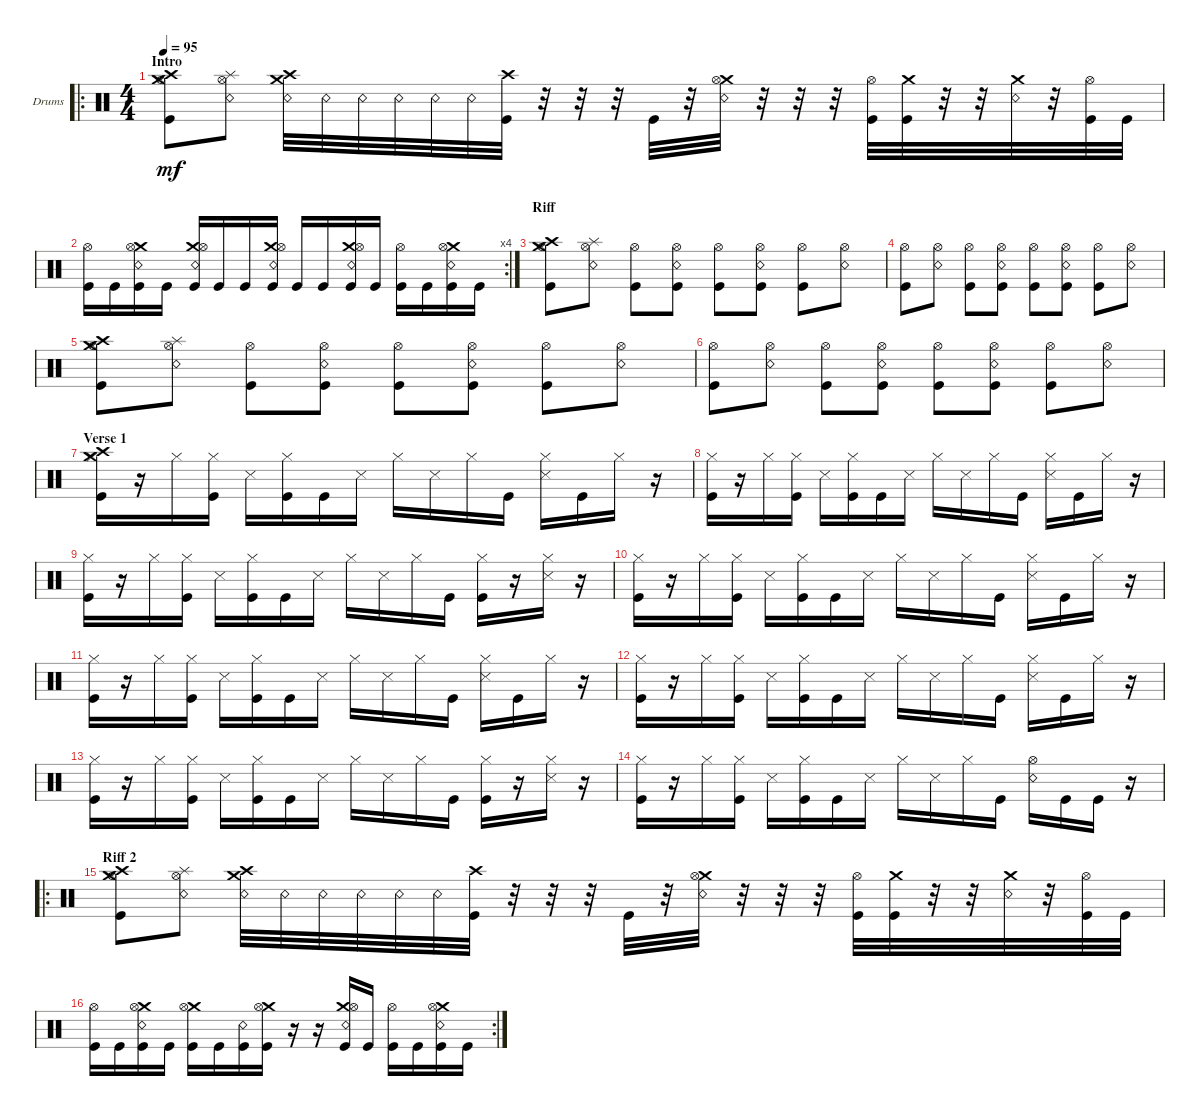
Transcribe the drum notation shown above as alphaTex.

\bracketExtendMode groupsimilarinstruments
\firstSystemTrackNameOrientation horizontal
\otherSystemsTrackNameOrientation horizontal
\track ("Drumkit" "Drums") {instrument percussion}
\staff {score}
\articulation defaults
\ro
\ts (4 4)
\section ("" "Intro")
\tempo 95
\clef neutral
\ks c
("Kick (hit)" "Hi-Hat (open)" "Crash medium (hit)" "Crash high (hit)").8{dy mf} ("Hi-Hat (open)" "Snare (rim shot)" "Splash (hit)").8 ("Crash medium (hit)" "Crash high (hit)" "Snare (rim shot)").32 "Snare (rim shot)".32 "Snare (rim shot)".32 "Snare (rim shot)".32 "Snare (rim shot)".32 "Snare (rim shot)".32 ("Kick (hit)" "Crash high (hit)").32 r.32 r.32 r.32 "Kick (hit)".32 r.32 ("Snare (rim shot)" "Crash medium (hit)" "Hi-Hat (open)").32 r.32 r.32 r.32 ("Kick (hit)" "Hi-Hat (open)").32 ("Kick (hit)" "Crash medium (hit)").32 r.32 r.32 ("Snare (rim shot)" "Crash medium (hit)").32 r.32 ("Kick (hit)" "Hi-Hat (open)").32 "Kick (hit)".32 |
\rc 4
("Kick (hit)" "Hi-Hat (open)").16 "Kick (hit)".16 ("Kick (hit)" "Snare (rim shot)" "Crash medium (hit)" "Hi-Hat (open)").16 "Kick (hit)".16 ("Kick (hit)" "Snare (rim shot)" "Crash medium (hit)" "Hi-Hat (open)").16 "Kick (hit)".16 "Kick (hit)".16 ("Kick (hit)" "Snare (rim shot)" "Crash medium (hit)" "Hi-Hat (open)").16 "Kick (hit)".16 "Kick (hit)".16 ("Kick (hit)" "Snare (rim shot)" "Crash medium (hit)" "Hi-Hat (open)").16 "Kick (hit)".16 ("Kick (hit)" "Hi-Hat (open)").16 "Kick (hit)".16 ("Kick (hit)" "Snare (rim shot)" "Crash medium (hit)" "Hi-Hat (open)").16 "Kick (hit)".16 |
\section ("" "Riff")
("Kick (hit)" "Hi-Hat (open)" "Crash medium (hit)" "Crash high (hit)").8 ("Snare (rim shot)" "Hi-Hat (open)" "Splash (hit)").8 ("Kick (hit)" "Hi-Hat (open)").8 ("Kick (hit)" "Snare (rim shot)" "Hi-Hat (open)").8 ("Kick (hit)" "Hi-Hat (open)").8 ("Kick (hit)" "Snare (rim shot)" "Hi-Hat (open)").8 ("Kick (hit)" "Hi-Hat (open)").8 ("Snare (rim shot)" "Hi-Hat (open)").8 |
("Kick (hit)" "Hi-Hat (open)").8 ("Snare (rim shot)" "Hi-Hat (open)").8 ("Kick (hit)" "Hi-Hat (open)").8 ("Kick (hit)" "Snare (rim shot)" "Hi-Hat (open)").8 ("Kick (hit)" "Hi-Hat (open)").8 ("Kick (hit)" "Snare (rim shot)" "Hi-Hat (open)").8 ("Kick (hit)" "Hi-Hat (open)").8 ("Snare (rim shot)" "Hi-Hat (open)").8 |
("Kick (hit)" "Hi-Hat (open)" "Crash medium (hit)" "Crash high (hit)").8 ("Snare (rim shot)" "Hi-Hat (open)" "Splash (hit)").8 ("Kick (hit)" "Hi-Hat (open)").8 ("Kick (hit)" "Snare (rim shot)" "Hi-Hat (open)").8 ("Kick (hit)" "Hi-Hat (open)").8 ("Kick (hit)" "Snare (rim shot)" "Hi-Hat (open)").8 ("Kick (hit)" "Hi-Hat (open)").8 ("Snare (rim shot)" "Hi-Hat (open)").8 |
("Kick (hit)" "Hi-Hat (open)").8 ("Snare (rim shot)" "Hi-Hat (open)").8 ("Kick (hit)" "Hi-Hat (open)").8 ("Kick (hit)" "Snare (rim shot)" "Hi-Hat (open)").8 ("Kick (hit)" "Hi-Hat (open)").8 ("Kick (hit)" "Snare (rim shot)" "Hi-Hat (open)").8 ("Kick (hit)" "Hi-Hat (open)").8 ("Snare (rim shot)" "Hi-Hat (open)").8 |
\section ("" "Verse 1")
("Kick (hit)" "Hi-Hat (closed)" "Crash medium (hit)" "Crash high (hit)").16 r.16 "Hi-Hat (closed)".16 ("Kick (hit)" "Hi-Hat (closed)").16 "Snare (side stick) 3".16 ("Kick (hit)" "Hi-Hat (closed)").16 "Kick (hit)".16 "Snare (side stick) 3".16 "Hi-Hat (closed)".16 "Snare (side stick) 3".16 "Hi-Hat (closed)".16 "Kick (hit)".16 ("Hi-Hat (closed)" "Snare (side stick) 3").16 "Kick (hit)".16 "Hi-Hat (closed)".16 r.16 |
("Kick (hit)" "Hi-Hat (closed)").16 r.16 "Hi-Hat (closed)".16 ("Kick (hit)" "Hi-Hat (closed)").16 "Snare (side stick) 3".16 ("Kick (hit)" "Hi-Hat (closed)").16 "Kick (hit)".16 "Snare (side stick) 3".16 "Hi-Hat (closed)".16 "Snare (side stick) 3".16 "Hi-Hat (closed)".16 "Kick (hit)".16 ("Hi-Hat (closed)" "Snare (side stick) 3").16 "Kick (hit)".16 "Hi-Hat (closed)".16 r.16 |
("Kick (hit)" "Hi-Hat (closed)").16 r.16 "Hi-Hat (closed)".16 ("Kick (hit)" "Hi-Hat (closed)").16 "Snare (side stick) 3".16 ("Kick (hit)" "Hi-Hat (closed)").16 "Kick (hit)".16 "Snare (side stick) 3".16 "Hi-Hat (closed)".16 "Snare (side stick) 3".16 "Hi-Hat (closed)".16 "Kick (hit)".16 ("Kick (hit)" "Hi-Hat (closed)").16 r.16 ("Snare (side stick) 3" "Hi-Hat (closed)").16 r.16 |
("Kick (hit)" "Hi-Hat (closed)").16 r.16 "Hi-Hat (closed)".16 ("Kick (hit)" "Hi-Hat (closed)").16 "Snare (side stick) 3".16 ("Kick (hit)" "Hi-Hat (closed)").16 "Kick (hit)".16 "Snare (side stick) 3".16 "Hi-Hat (closed)".16 "Snare (side stick) 3".16 "Hi-Hat (closed)".16 "Kick (hit)".16 ("Hi-Hat (closed)" "Snare (side stick) 3").16 "Kick (hit)".16 "Hi-Hat (closed)".16 r.16 |
("Kick (hit)" "Hi-Hat (closed)").16 r.16 "Hi-Hat (closed)".16 ("Kick (hit)" "Hi-Hat (closed)").16 "Snare (side stick) 3".16 ("Kick (hit)" "Hi-Hat (closed)").16 "Kick (hit)".16 "Snare (side stick) 3".16 "Hi-Hat (closed)".16 "Snare (side stick) 3".16 "Hi-Hat (closed)".16 "Kick (hit)".16 ("Hi-Hat (closed)" "Snare (side stick) 3").16 "Kick (hit)".16 "Hi-Hat (closed)".16 r.16 |
("Kick (hit)" "Hi-Hat (closed)").16 r.16 "Hi-Hat (closed)".16 ("Kick (hit)" "Hi-Hat (closed)").16 "Snare (side stick) 3".16 ("Kick (hit)" "Hi-Hat (closed)").16 "Kick (hit)".16 "Snare (side stick) 3".16 "Hi-Hat (closed)".16 "Snare (side stick) 3".16 "Hi-Hat (closed)".16 "Kick (hit)".16 ("Hi-Hat (closed)" "Snare (side stick) 3").16 "Kick (hit)".16 "Hi-Hat (closed)".16 r.16 |
("Kick (hit)" "Hi-Hat (closed)").16 r.16 "Hi-Hat (closed)".16 ("Kick (hit)" "Hi-Hat (closed)").16 "Snare (side stick) 3".16 ("Kick (hit)" "Hi-Hat (closed)").16 "Kick (hit)".16 "Snare (side stick) 3".16 "Hi-Hat (closed)".16 "Snare (side stick) 3".16 "Hi-Hat (closed)".16 "Kick (hit)".16 ("Kick (hit)" "Hi-Hat (closed)").16 r.16 ("Snare (side stick) 3" "Hi-Hat (closed)").16 r.16 |
("Kick (hit)" "Hi-Hat (closed)").16 r.16 "Hi-Hat (closed)".16 ("Kick (hit)" "Hi-Hat (closed)").16 "Snare (side stick) 3".16 ("Kick (hit)" "Hi-Hat (closed)").16 "Kick (hit)".16 "Snare (side stick) 3".16 "Hi-Hat (closed)".16 "Snare (side stick) 3".16 "Hi-Hat (closed)".16 "Kick (hit)".16 ("Hi-Hat (open)" "Snare (rim shot)").16 "Kick (hit)".16 "Kick (hit)".16 r.16 |
\ro
\section ("" "Riff 2")
("Kick (hit)" "Hi-Hat (open)" "Crash medium (hit)" "Crash high (hit)").8 ("Hi-Hat (open)" "Snare (rim shot)" "Splash (hit)").8 ("Crash medium (hit)" "Crash high (hit)" "Snare (rim shot)").32 "Snare (rim shot)".32 "Snare (rim shot)".32 "Snare (rim shot)".32 "Snare (rim shot)".32 "Snare (rim shot)".32 ("Kick (hit)" "Crash high (hit)").32 r.32 r.32 r.32 "Kick (hit)".32 r.32 ("Snare (rim shot)" "Crash medium (hit)" "Hi-Hat (open)").32 r.32 r.32 r.32 ("Kick (hit)" "Hi-Hat (open)").32 ("Kick (hit)" "Crash medium (hit)").32 r.32 r.32 ("Snare (rim shot)" "Crash medium (hit)").32 r.32 ("Kick (hit)" "Hi-Hat (open)").32 "Kick (hit)".32 |
\rc 2
("Kick (hit)" "Hi-Hat (open)").16 "Kick (hit)".16 ("Kick (hit)" "Snare (rim shot)" "Crash medium (hit)" "Hi-Hat (open)").16 "Kick (hit)".16 ("Kick (hit)" "Crash medium (hit)" "Hi-Hat (open)").16 "Kick (hit)".16 ("Kick (hit)" "Snare (rim shot)").16 ("Kick (hit)" "Crash medium (hit)" "Hi-Hat (open)").16 r.16 r.16 ("Kick (hit)" "Snare (rim shot)" "Crash medium (hit)" "Hi-Hat (open)").16 "Kick (hit)".16 ("Kick (hit)" "Hi-Hat (open)").16 "Kick (hit)".16 ("Kick (hit)" "Snare (rim shot)" "Crash medium (hit)" "Hi-Hat (open)").16 "Kick (hit)".16
